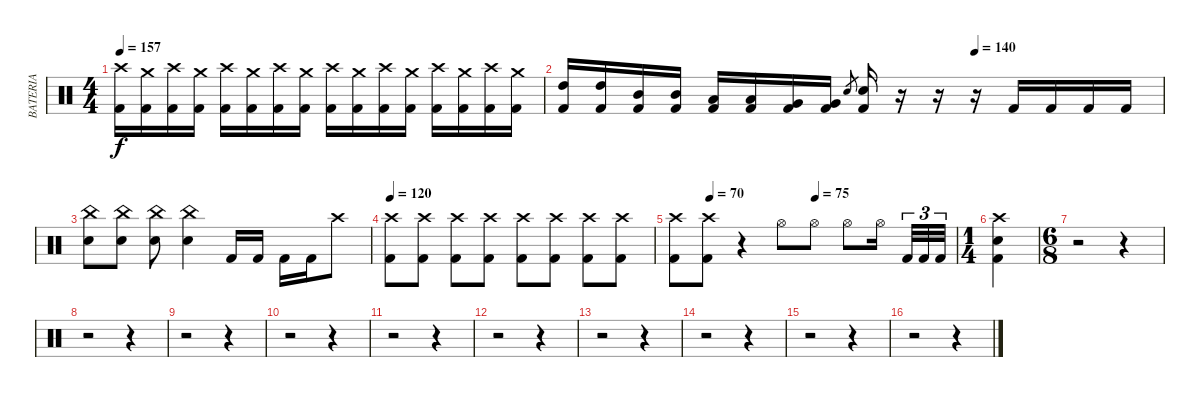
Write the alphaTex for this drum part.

\track ("BATERIA" "BATERIA") {instrument percussion}
\staff {score}
\articulation defaults
\ts (4 4)
\tempo 157
\clef neutral
\ks c
("Crash high (hit)" "Kick (hit) 2").16{dy f} ("Crash medium (hit)" "Kick (hit) 2").16 ("Crash high (hit)" "Kick (hit) 2").16 ("Crash medium (hit)" "Kick (hit) 2").16 ("Crash high (hit)" "Kick (hit) 2").16 ("Crash medium (hit)" "Kick (hit) 2").16 ("Crash high (hit)" "Kick (hit) 2").16 ("Crash medium (hit)" "Kick (hit) 2").16 ("Crash high (hit)" "Kick (hit) 2").16 ("Crash medium (hit)" "Kick (hit) 2").16 ("Crash high (hit)" "Kick (hit) 2").16 ("Crash medium (hit)" "Kick (hit) 2").16 ("Crash high (hit)" "Kick (hit) 2").16 ("Crash medium (hit)" "Kick (hit) 2").16 ("Crash high (hit)" "Kick (hit) 2").16 ("Crash medium (hit)" "Kick (hit) 2").16 |
\tempo (140 0.6875)
("High Tom (hit)" "Kick (hit) 2").16 ("High Tom (hit)" "Kick (hit) 2").16 ("Mid Tom (hit)" "Kick (hit) 2").16 ("Mid Tom (hit)" "Kick (hit) 2").16 ("Low Tom (hit)" "Kick (hit) 2").16 ("Low Tom (hit)" "Kick (hit) 2").16 ("Very Low Tom (hit)" "Kick (hit) 2").16 ("Very Low Tom (hit)" "Kick (hit) 2").16 "Snare (hit) 2".8{gr} ("Snare (hit) 2" "Kick (hit) 2").16 r.16 r.16 r.16 "Kick (hit) 2".16 "Kick (hit) 2".16 "Kick (hit) 2".16 "Kick (hit) 2".16 |
("China (hit)" "Snare (hit) 2").8 ("China (hit)" "Snare (hit) 2").8 ("China (hit)" "Snare (hit) 2").8 ("China (hit)" "Snare (hit) 2").4 "Kick (hit) 2".16 "Kick (hit) 2".16 "Kick (hit) 2".16 "Kick (hit) 2".16 "Crash high (hit)".8 |
\tempo 120
("Crash high (hit)" "Kick (hit) 2").8 ("Crash high (hit)" "Kick (hit) 2").8 ("Crash high (hit)" "Kick (hit) 2").8 ("Crash high (hit)" "Kick (hit) 2").8 ("Crash high (hit)" "Kick (hit) 2").8 ("Crash high (hit)" "Kick (hit) 2").8 ("Crash high (hit)" "Kick (hit) 2").8 ("Crash high (hit)" "Kick (hit) 2").8 |
\tempo (70 0.125)
\tempo (75 0.5)
("Crash high (hit)" "Kick (hit) 2").8 ("Crash high (hit)" "Kick (hit) 2").8 r.4 "Hi-Hat (open)".8 "Hi-Hat (open)".8 "Hi-Hat (open)".8 "Hi-Hat (open)".16 "Kick (hit) 2".32{tu (3 2)} "Kick (hit) 2".32{tu (3 2)} "Kick (hit) 2".32{tu (3 2)} |
\ts (1 4)
("Crash high (hit)" "Snare (hit) 2" "Kick (hit) 2").4{volume 0} |
\ts (6 8)
r.2 r.4 |
r.2 r.4 |
r.2 r.4 |
r.2 r.4 |
r.2 r.4 |
r.2 r.4 |
r.2 r.4 |
r.2 r.4 |
r.2 r.4 |
r.2 r.4
